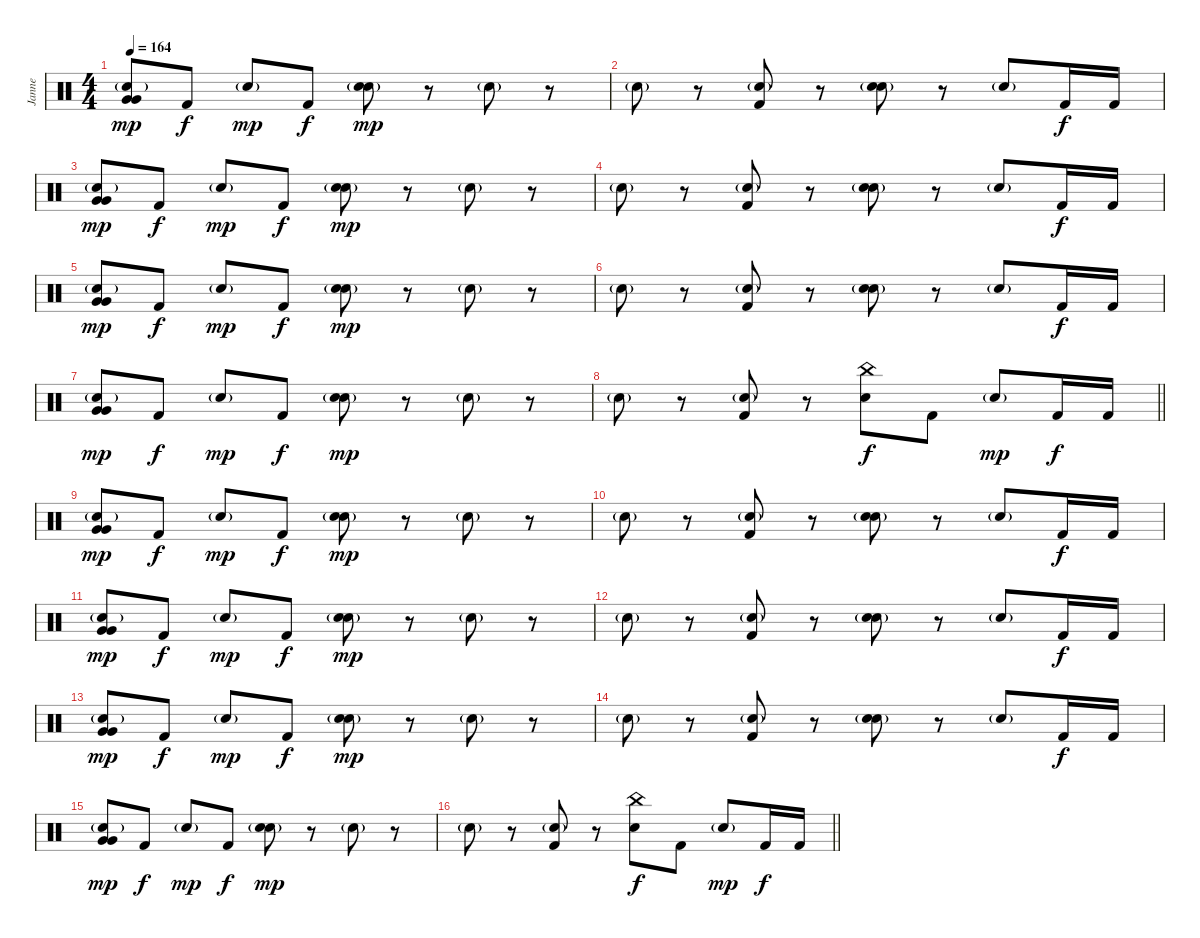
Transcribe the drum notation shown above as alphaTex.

\track ("Janne" "Janne") {instrument percussion}
\staff {score}
\articulation defaults
\ts (4 4)
\tempo 164
\clef neutral
\ks c
("Electric Snare (hit)"{g} "Very Low Tom (hit)" "Very Low Tom (hit)").8{dy mp} "Kick (hit) 2".8{dy f} "Electric Snare (hit)"{g}.8{dy mp} "Kick (hit) 2".8{dy f} ("Electric Snare (hit)"{g} "Electric Snare (hit)").8{dy mp} r.8 "Electric Snare (hit)"{g}.8 r.8 |
"Electric Snare (hit)"{g}.8 r.8 ("Electric Snare (hit)"{g} "Kick (hit) 2").8 r.8 ("Electric Snare (hit)"{g} "Electric Snare (hit)").8 r.8 "Electric Snare (hit)"{g}.8 "Kick (hit) 2".16{dy f} "Kick (hit) 2".16 |
("Electric Snare (hit)"{g} "Very Low Tom (hit)" "Very Low Tom (hit)").8{dy mp} "Kick (hit) 2".8{dy f} "Electric Snare (hit)"{g}.8{dy mp} "Kick (hit) 2".8{dy f} ("Electric Snare (hit)"{g} "Electric Snare (hit)").8{dy mp} r.8 "Electric Snare (hit)"{g}.8 r.8 |
"Electric Snare (hit)"{g}.8 r.8 ("Electric Snare (hit)"{g} "Kick (hit) 2").8 r.8 ("Electric Snare (hit)"{g} "Electric Snare (hit)").8 r.8 "Electric Snare (hit)"{g}.8 "Kick (hit) 2".16{dy f} "Kick (hit) 2".16 |
("Electric Snare (hit)"{g} "Very Low Tom (hit)" "Very Low Tom (hit)").8{dy mp} "Kick (hit) 2".8{dy f} "Electric Snare (hit)"{g}.8{dy mp} "Kick (hit) 2".8{dy f} ("Electric Snare (hit)"{g} "Electric Snare (hit)").8{dy mp} r.8 "Electric Snare (hit)"{g}.8 r.8 |
"Electric Snare (hit)"{g}.8 r.8 ("Electric Snare (hit)"{g} "Kick (hit) 2").8 r.8 ("Electric Snare (hit)"{g} "Electric Snare (hit)").8 r.8 "Electric Snare (hit)"{g}.8 "Kick (hit) 2".16{dy f} "Kick (hit) 2".16 |
("Electric Snare (hit)"{g} "Very Low Tom (hit)" "Very Low Tom (hit)").8{dy mp} "Kick (hit) 2".8{dy f} "Electric Snare (hit)"{g}.8{dy mp} "Kick (hit) 2".8{dy f} ("Electric Snare (hit)"{g} "Electric Snare (hit)").8{dy mp} r.8 "Electric Snare (hit)"{g}.8 r.8 |
\barLineRight lightlight "Electric Snare (hit)"{g}.8
r.8 ("Electric Snare (hit)"{g} "Kick (hit) 2").8 r.8 ("China (hit)" "Electric Snare (hit)").8{dy f} "Kick (hit) 2".8 "Electric Snare (hit)"{g}.8{dy mp} "Kick (hit) 2".16{dy f} "Kick (hit) 2".16 |
("Electric Snare (hit)"{g} "Very Low Tom (hit)" "Very Low Tom (hit)").8{dy mp} "Kick (hit) 2".8{dy f} "Electric Snare (hit)"{g}.8{dy mp} "Kick (hit) 2".8{dy f} ("Electric Snare (hit)"{g} "Electric Snare (hit)").8{dy mp} r.8 "Electric Snare (hit)"{g}.8 r.8 |
"Electric Snare (hit)"{g}.8 r.8 ("Electric Snare (hit)"{g} "Kick (hit) 2").8 r.8 ("Electric Snare (hit)"{g} "Electric Snare (hit)").8 r.8 "Electric Snare (hit)"{g}.8 "Kick (hit) 2".16{dy f} "Kick (hit) 2".16 |
("Electric Snare (hit)"{g} "Very Low Tom (hit)" "Very Low Tom (hit)").8{dy mp} "Kick (hit) 2".8{dy f} "Electric Snare (hit)"{g}.8{dy mp} "Kick (hit) 2".8{dy f} ("Electric Snare (hit)"{g} "Electric Snare (hit)").8{dy mp} r.8 "Electric Snare (hit)"{g}.8 r.8 |
"Electric Snare (hit)"{g}.8 r.8 ("Electric Snare (hit)"{g} "Kick (hit) 2").8 r.8 ("Electric Snare (hit)"{g} "Electric Snare (hit)").8 r.8 "Electric Snare (hit)"{g}.8 "Kick (hit) 2".16{dy f} "Kick (hit) 2".16 |
("Electric Snare (hit)"{g} "Very Low Tom (hit)" "Very Low Tom (hit)").8{dy mp} "Kick (hit) 2".8{dy f} "Electric Snare (hit)"{g}.8{dy mp} "Kick (hit) 2".8{dy f} ("Electric Snare (hit)"{g} "Electric Snare (hit)").8{dy mp} r.8 "Electric Snare (hit)"{g}.8 r.8 |
"Electric Snare (hit)"{g}.8 r.8 ("Electric Snare (hit)"{g} "Kick (hit) 2").8 r.8 ("Electric Snare (hit)"{g} "Electric Snare (hit)").8 r.8 "Electric Snare (hit)"{g}.8 "Kick (hit) 2".16{dy f} "Kick (hit) 2".16 |
("Electric Snare (hit)"{g} "Very Low Tom (hit)" "Very Low Tom (hit)").8{dy mp} "Kick (hit) 2".8{dy f} "Electric Snare (hit)"{g}.8{dy mp} "Kick (hit) 2".8{dy f} ("Electric Snare (hit)"{g} "Electric Snare (hit)").8{dy mp} r.8 "Electric Snare (hit)"{g}.8 r.8 |
\barLineRight lightlight "Electric Snare (hit)"{g}.8
r.8 ("Electric Snare (hit)"{g} "Kick (hit) 2").8 r.8 ("China (hit)" "Electric Snare (hit)").8{dy f} "Kick (hit) 2".8 "Electric Snare (hit)"{g}.8{dy mp} "Kick (hit) 2".16{dy f} "Kick (hit) 2".16
